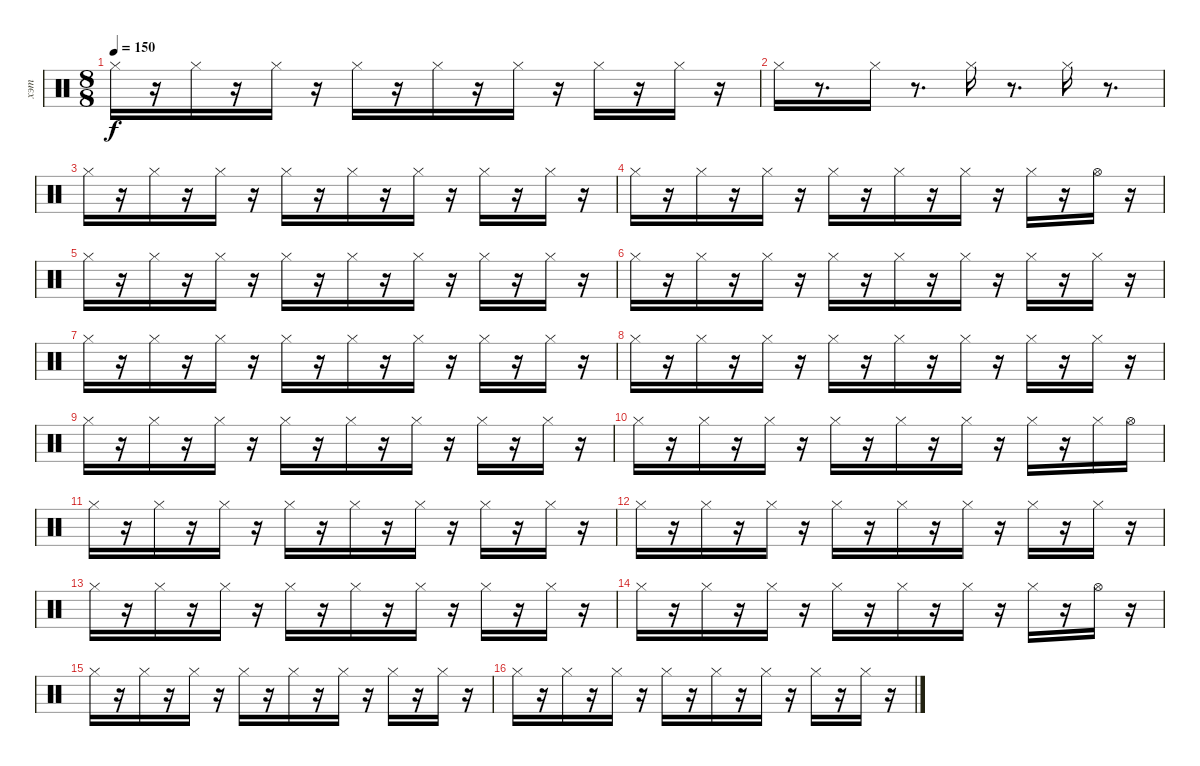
\track ("хэт" "хэт") {instrument percussion}
\staff {score}
\articulation defaults
\ts (8 8)
\tempo 150
\clef neutral
\ks c "Hi-Hat (closed)".16{dy f}
r.16 "Hi-Hat (closed)".16 r.16 "Hi-Hat (closed)".16 r.16 "Hi-Hat (closed)".16 r.16 "Hi-Hat (closed)".16 r.16 "Hi-Hat (closed)".16 r.16 "Hi-Hat (closed)".16 r.16 "Hi-Hat (closed)".16 r.16 |
"Hi-Hat (closed)".16 r.8{d} "Hi-Hat (closed)".16 r.8{d} "Hi-Hat (closed)".16 r.8{d} "Hi-Hat (closed)".16 r.8{d} |
"Hi-Hat (closed)".16 r.16 "Hi-Hat (closed)".16 r.16 "Hi-Hat (closed)".16 r.16 "Hi-Hat (closed)".16 r.16 "Hi-Hat (closed)".16 r.16 "Hi-Hat (closed)".16 r.16 "Hi-Hat (closed)".16 r.16 "Hi-Hat (closed)".16 r.16 |
"Hi-Hat (closed)".16 r.16 "Hi-Hat (closed)".16 r.16 "Hi-Hat (closed)".16 r.16 "Hi-Hat (closed)".16 r.16 "Hi-Hat (closed)".16 r.16 "Hi-Hat (closed)".16 r.16 "Hi-Hat (closed)".16 r.16 "Hi-Hat (open)".16 r.16 |
"Hi-Hat (closed)".16 r.16 "Hi-Hat (closed)".16 r.16 "Hi-Hat (closed)".16 r.16 "Hi-Hat (closed)".16 r.16 "Hi-Hat (closed)".16 r.16 "Hi-Hat (closed)".16 r.16 "Hi-Hat (closed)".16 r.16 "Hi-Hat (closed)".16 r.16 |
"Hi-Hat (closed)".16 r.16 "Hi-Hat (closed)".16 r.16 "Hi-Hat (closed)".16 r.16 "Hi-Hat (closed)".16 r.16 "Hi-Hat (closed)".16 r.16 "Hi-Hat (closed)".16 r.16 "Hi-Hat (closed)".16 r.16 "Hi-Hat (closed)".16 r.16 |
"Hi-Hat (closed)".16 r.16 "Hi-Hat (closed)".16 r.16 "Hi-Hat (closed)".16 r.16 "Hi-Hat (closed)".16 r.16 "Hi-Hat (closed)".16 r.16 "Hi-Hat (closed)".16 r.16 "Hi-Hat (closed)".16 r.16 "Hi-Hat (closed)".16 r.16 |
"Hi-Hat (closed)".16 r.16 "Hi-Hat (closed)".16 r.16 "Hi-Hat (closed)".16 r.16 "Hi-Hat (closed)".16 r.16 "Hi-Hat (closed)".16 r.16 "Hi-Hat (closed)".16 r.16 "Hi-Hat (closed)".16 r.16 "Hi-Hat (closed)".16 r.16 |
"Hi-Hat (closed)".16 r.16 "Hi-Hat (closed)".16 r.16 "Hi-Hat (closed)".16 r.16 "Hi-Hat (closed)".16 r.16 "Hi-Hat (closed)".16 r.16 "Hi-Hat (closed)".16 r.16 "Hi-Hat (closed)".16 r.16 "Hi-Hat (closed)".16 r.16 |
"Hi-Hat (closed)".16 r.16 "Hi-Hat (closed)".16 r.16 "Hi-Hat (closed)".16 r.16 "Hi-Hat (closed)".16 r.16 "Hi-Hat (closed)".16 r.16 "Hi-Hat (closed)".16 r.16 "Hi-Hat (closed)".16 r.16 "Hi-Hat (closed)".16 "Hi-Hat (open)".16 |
"Hi-Hat (closed)".16 r.16 "Hi-Hat (closed)".16 r.16 "Hi-Hat (closed)".16 r.16 "Hi-Hat (closed)".16 r.16 "Hi-Hat (closed)".16 r.16 "Hi-Hat (closed)".16 r.16 "Hi-Hat (closed)".16 r.16 "Hi-Hat (closed)".16 r.16 |
"Hi-Hat (closed)".16 r.16 "Hi-Hat (closed)".16 r.16 "Hi-Hat (closed)".16 r.16 "Hi-Hat (closed)".16 r.16 "Hi-Hat (closed)".16 r.16 "Hi-Hat (closed)".16 r.16 "Hi-Hat (closed)".16 r.16 "Hi-Hat (closed)".16 r.16 |
"Hi-Hat (closed)".16 r.16 "Hi-Hat (closed)".16 r.16 "Hi-Hat (closed)".16 r.16 "Hi-Hat (closed)".16 r.16 "Hi-Hat (closed)".16 r.16 "Hi-Hat (closed)".16 r.16 "Hi-Hat (closed)".16 r.16 "Hi-Hat (closed)".16 r.16 |
"Hi-Hat (closed)".16 r.16 "Hi-Hat (closed)".16 r.16 "Hi-Hat (closed)".16 r.16 "Hi-Hat (closed)".16 r.16 "Hi-Hat (closed)".16 r.16 "Hi-Hat (closed)".16 r.16 "Hi-Hat (closed)".16 r.16 "Hi-Hat (open)".16 r.16 |
"Hi-Hat (closed)".16 r.16 "Hi-Hat (closed)".16 r.16 "Hi-Hat (closed)".16 r.16 "Hi-Hat (closed)".16 r.16 "Hi-Hat (closed)".16 r.16 "Hi-Hat (closed)".16 r.16 "Hi-Hat (closed)".16 r.16 "Hi-Hat (closed)".16 r.16 |
"Hi-Hat (closed)".16 r.16 "Hi-Hat (closed)".16 r.16 "Hi-Hat (closed)".16 r.16 "Hi-Hat (closed)".16 r.16 "Hi-Hat (closed)".16 r.16 "Hi-Hat (closed)".16 r.16 "Hi-Hat (closed)".16 r.16 "Hi-Hat (closed)".16 r.16
